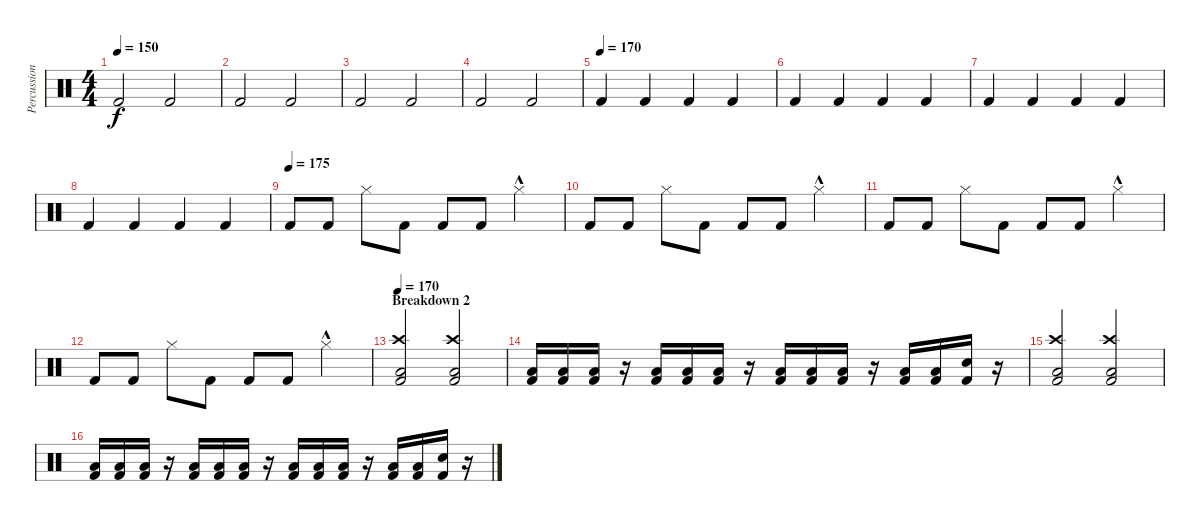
\track ("Percussion" "Percussion") {instrument percussion}
\staff {score}
\articulation defaults
\ts (4 4)
\tempo 150
\clef neutral
\ks c "Kick (hit) 2".2{dy f} "Kick (hit) 2".2
|
"Kick (hit) 2".2 "Kick (hit) 2".2 |
"Kick (hit) 2".2 "Kick (hit) 2".2 |
"Kick (hit) 2".2 "Kick (hit) 2".2 |
\tempo 150
\tempo (170)
"Kick (hit) 2".4 "Kick (hit) 2".4 "Kick (hit) 2".4 "Kick (hit) 2".4 |
"Kick (hit) 2".4 "Kick (hit) 2".4 "Kick (hit) 2".4 "Kick (hit) 2".4 |
"Kick (hit) 2".4 "Kick (hit) 2".4 "Kick (hit) 2".4 "Kick (hit) 2".4 |
"Kick (hit) 2".4 "Kick (hit) 2".4 "Kick (hit) 2".4 "Kick (hit) 2".4 |
\tempo (175)
"Kick (hit) 2".8 "Kick (hit) 2".8 "Hi-Hat (closed)".8 "Kick (hit) 2".8 "Kick (hit) 2".8 "Kick (hit) 2".8 "Hi-Hat (closed)"{hac}.4 |
"Kick (hit) 2".8 "Kick (hit) 2".8 "Hi-Hat (closed)".8 "Kick (hit) 2".8 "Kick (hit) 2".8 "Kick (hit) 2".8 "Hi-Hat (closed)"{hac}.4 |
"Kick (hit) 2".8 "Kick (hit) 2".8 "Hi-Hat (closed)".8 "Kick (hit) 2".8 "Kick (hit) 2".8 "Kick (hit) 2".8 "Hi-Hat (closed)"{hac}.4 |
"Kick (hit) 2".8 "Kick (hit) 2".8 "Hi-Hat (closed)".8 "Kick (hit) 2".8 "Kick (hit) 2".8 "Kick (hit) 2".8 "Hi-Hat (closed)"{hac}.4 |
\section ("" "Breakdown 2")
\tempo 170
("Crash high (hit)" "Low Floor Tom (hit)" "Kick (hit) 2").2 ("Crash high (hit)" "Low Floor Tom (hit)" "Kick (hit) 2").2 |
("Low Floor Tom (hit)" "Kick (hit) 2").16 ("Low Floor Tom (hit)" "Kick (hit) 2").16 ("Low Floor Tom (hit)" "Kick (hit) 2").16 r.16 ("Low Floor Tom (hit)" "Kick (hit) 2").16 ("Low Floor Tom (hit)" "Kick (hit) 2").16 ("Low Floor Tom (hit)" "Kick (hit) 2").16 r.16 ("Low Floor Tom (hit)" "Kick (hit) 2").16 ("Low Floor Tom (hit)" "Kick (hit) 2").16 ("Low Floor Tom (hit)" "Kick (hit) 2").16 r.16 ("Low Floor Tom (hit)" "Kick (hit) 2").16 ("Low Floor Tom (hit)" "Kick (hit) 2").16 ("Snare (hit)" "Kick (hit) 2").16 r.16 |
("Crash high (hit)" "Low Floor Tom (hit)" "Kick (hit) 2").2 ("Crash high (hit)" "Low Floor Tom (hit)" "Kick (hit) 2").2 |
("Low Floor Tom (hit)" "Kick (hit) 2").16 ("Low Floor Tom (hit)" "Kick (hit) 2").16 ("Low Floor Tom (hit)" "Kick (hit) 2").16 r.16 ("Low Floor Tom (hit)" "Kick (hit) 2").16 ("Low Floor Tom (hit)" "Kick (hit) 2").16 ("Low Floor Tom (hit)" "Kick (hit) 2").16 r.16 ("Low Floor Tom (hit)" "Kick (hit) 2").16 ("Low Floor Tom (hit)" "Kick (hit) 2").16 ("Low Floor Tom (hit)" "Kick (hit) 2").16 r.16 ("Low Floor Tom (hit)" "Kick (hit) 2").16 ("Low Floor Tom (hit)" "Kick (hit) 2").16 ("Snare (hit)" "Kick (hit) 2").16 r.16
